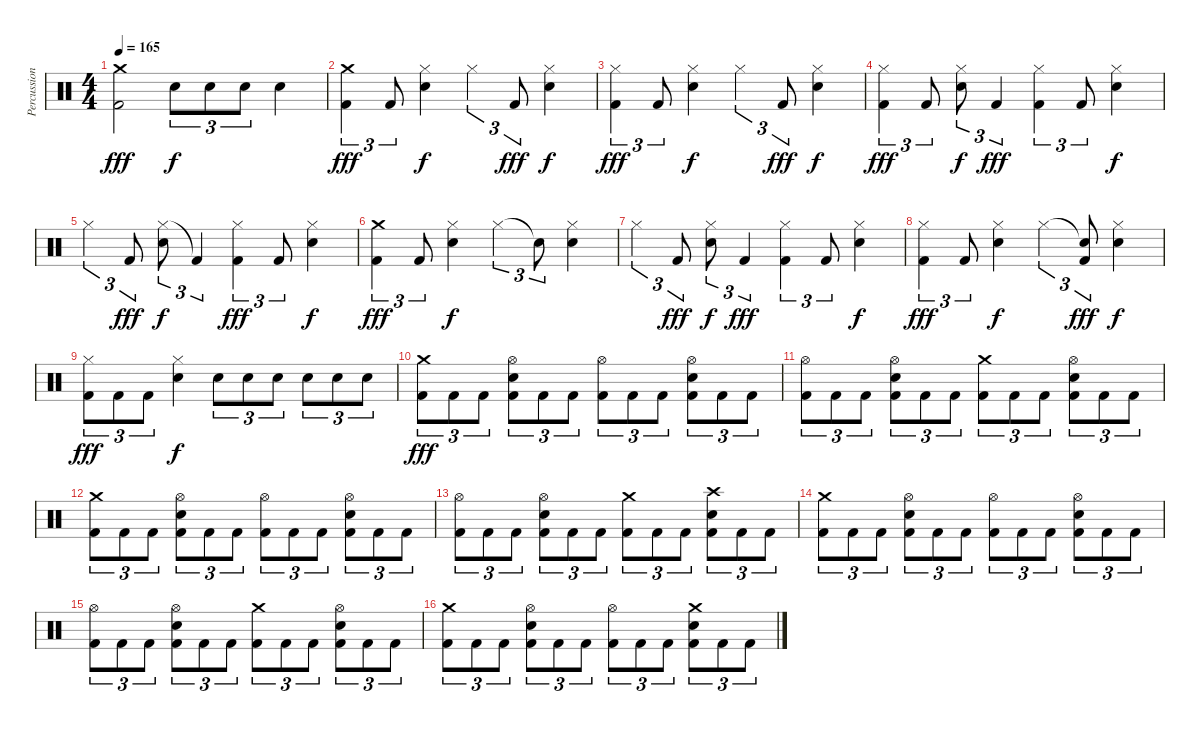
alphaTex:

\track ("Percussion" "Percussion") {instrument percussion}
\staff {score}
\articulation defaults
\ts (4 4)
\tempo 165
\clef neutral
\ks c
("Crash medium (hit)" "Kick (hit) 2").2{dy fff} "Electric Snare (hit)".8{tu (3 2) dy f} "Electric Snare (hit)".8{tu (3 2)} "Electric Snare (hit)".8{tu (3 2)} "Electric Snare (hit)".4 |
("Crash medium (hit)" "Kick (hit) 2").4{tu (3 2) dy fff} "Kick (hit) 2".8{tu (3 2)} ("Hi-Hat (closed)" "Electric Snare (hit)").4{dy f} "Hi-Hat (closed)".4{tu (3 2)} "Kick (hit) 2".8{tu (3 2) dy fff} ("Hi-Hat (closed)" "Electric Snare (hit)").4{dy f} |
("Hi-Hat (closed)" "Kick (hit) 2").4{tu (3 2) dy fff} "Kick (hit) 2".8{tu (3 2)} ("Hi-Hat (closed)" "Electric Snare (hit)").4{dy f} "Hi-Hat (closed)".4{tu (3 2)} "Kick (hit) 2".8{tu (3 2) dy fff} ("Hi-Hat (closed)" "Electric Snare (hit)").4{dy f} |
("Hi-Hat (closed)" "Kick (hit) 2").4{tu (3 2) dy fff} "Kick (hit) 2".8{tu (3 2)} ("Hi-Hat (closed)" "Electric Snare (hit)").8{tu (3 2) dy f} "Kick (hit) 2".4{tu (3 2) dy fff} ("Hi-Hat (closed)" "Kick (hit) 2").4{tu (3 2)} "Kick (hit) 2".8{tu (3 2)} ("Hi-Hat (closed)" "Electric Snare (hit)").4{dy f} |
"Hi-Hat (closed)".4{tu (3 2)} "Kick (hit) 2".8{tu (3 2) dy fff} ("Hi-Hat (closed)" "Electric Snare (hit)").8{tu (3 2) dy f} "Kick (hit) 2"{t}.4{tu (3 2)} ("Hi-Hat (closed)" "Kick (hit) 2").4{tu (3 2) dy fff} "Kick (hit) 2".8{tu (3 2)} ("Hi-Hat (closed)" "Electric Snare (hit)").4{dy f} |
("Crash medium (hit)" "Kick (hit) 2").4{tu (3 2) dy fff} "Kick (hit) 2".8{tu (3 2)} ("Hi-Hat (closed)" "Electric Snare (hit)").4{dy f} "Hi-Hat (closed)".4{tu (3 2)} "Snare (hit)"{t}.8{tu (3 2)} ("Hi-Hat (closed)" "Electric Snare (hit)").4 |
"Hi-Hat (closed)".4{tu (3 2)} "Kick (hit) 2".8{tu (3 2) dy fff} ("Hi-Hat (closed)" "Electric Snare (hit)").8{tu (3 2) dy f} "Kick (hit) 2".4{tu (3 2) dy fff} ("Hi-Hat (closed)" "Kick (hit) 2").4{tu (3 2)} "Kick (hit) 2".8{tu (3 2)} ("Hi-Hat (closed)" "Electric Snare (hit)").4{dy f} |
("Hi-Hat (closed)" "Kick (hit) 2").4{tu (3 2) dy fff} "Kick (hit) 2".8{tu (3 2)} ("Hi-Hat (closed)" "Electric Snare (hit)").4{dy f} "Hi-Hat (closed)".4{tu (3 2)} ("Snare (hit)"{t} "Kick (hit) 2").8{tu (3 2) dy fff} ("Hi-Hat (closed)" "Electric Snare (hit)").4{dy f} |
("Hi-Hat (closed)" "Kick (hit) 2").8{tu (3 2) dy fff} "Kick (hit) 2".8{tu (3 2)} "Kick (hit) 2".8{tu (3 2)} ("Hi-Hat (closed)" "Electric Snare (hit)").4{dy f} "Electric Snare (hit)".8{tu (3 2)} "Electric Snare (hit)".8{tu (3 2)} "Electric Snare (hit)".8{tu (3 2)} "Electric Snare (hit)".8{tu (3 2)} "Electric Snare (hit)".8{tu (3 2)} "Electric Snare (hit)".8{tu (3 2)} |
("Crash medium (hit)" "Kick (hit) 2").8{tu (3 2) dy fff} "Kick (hit) 2".8{tu (3 2)} "Kick (hit) 2".8{tu (3 2)} ("Hi-Hat (open)" "Electric Snare (hit)" "Kick (hit) 2").8{tu (3 2)} "Kick (hit) 2".8{tu (3 2)} "Kick (hit) 2".8{tu (3 2)} ("Hi-Hat (open)" "Kick (hit) 2").8{tu (3 2)} "Kick (hit) 2".8{tu (3 2)} "Kick (hit) 2".8{tu (3 2)} ("Hi-Hat (open)" "Electric Snare (hit)" "Kick (hit) 2").8{tu (3 2)} "Kick (hit) 2".8{tu (3 2)} "Kick (hit) 2".8{tu (3 2)} |
("Hi-Hat (open)" "Kick (hit) 2").8{tu (3 2)} "Kick (hit) 2".8{tu (3 2)} "Kick (hit) 2".8{tu (3 2)} ("Hi-Hat (open)" "Electric Snare (hit)" "Kick (hit) 2").8{tu (3 2)} "Kick (hit) 2".8{tu (3 2)} "Kick (hit) 2".8{tu (3 2)} ("Crash medium (hit)" "Kick (hit) 2").8{tu (3 2)} "Kick (hit) 2".8{tu (3 2)} "Kick (hit) 2".8{tu (3 2)} ("Hi-Hat (open)" "Electric Snare (hit)" "Kick (hit) 2").8{tu (3 2)} "Kick (hit) 2".8{tu (3 2)} "Kick (hit) 2".8{tu (3 2)} |
("Crash medium (hit)" "Kick (hit) 2").8{tu (3 2)} "Kick (hit) 2".8{tu (3 2)} "Kick (hit) 2".8{tu (3 2)} ("Hi-Hat (open)" "Electric Snare (hit)" "Kick (hit) 2").8{tu (3 2)} "Kick (hit) 2".8{tu (3 2)} "Kick (hit) 2".8{tu (3 2)} ("Hi-Hat (open)" "Kick (hit) 2").8{tu (3 2)} "Kick (hit) 2".8{tu (3 2)} "Kick (hit) 2".8{tu (3 2)} ("Hi-Hat (open)" "Electric Snare (hit)" "Kick (hit) 2").8{tu (3 2)} "Kick (hit) 2".8{tu (3 2)} "Kick (hit) 2".8{tu (3 2)} |
("Hi-Hat (open)" "Kick (hit) 2").8{tu (3 2)} "Kick (hit) 2".8{tu (3 2)} "Kick (hit) 2".8{tu (3 2)} ("Hi-Hat (open)" "Electric Snare (hit)" "Kick (hit) 2").8{tu (3 2)} "Kick (hit) 2".8{tu (3 2)} "Kick (hit) 2".8{tu (3 2)} ("Crash medium (hit)" "Kick (hit) 2").8{tu (3 2)} "Kick (hit) 2".8{tu (3 2)} "Kick (hit) 2".8{tu (3 2)} ("Crash high (hit)" "Electric Snare (hit)" "Kick (hit) 2").8{tu (3 2)} "Kick (hit) 2".8{tu (3 2)} "Kick (hit) 2".8{tu (3 2)} |
("Crash medium (hit)" "Kick (hit) 2").8{tu (3 2)} "Kick (hit) 2".8{tu (3 2)} "Kick (hit) 2".8{tu (3 2)} ("Hi-Hat (open)" "Electric Snare (hit)" "Kick (hit) 2").8{tu (3 2)} "Kick (hit) 2".8{tu (3 2)} "Kick (hit) 2".8{tu (3 2)} ("Hi-Hat (open)" "Kick (hit) 2").8{tu (3 2)} "Kick (hit) 2".8{tu (3 2)} "Kick (hit) 2".8{tu (3 2)} ("Hi-Hat (open)" "Electric Snare (hit)" "Kick (hit) 2").8{tu (3 2)} "Kick (hit) 2".8{tu (3 2)} "Kick (hit) 2".8{tu (3 2)} |
("Hi-Hat (open)" "Kick (hit) 2").8{tu (3 2)} "Kick (hit) 2".8{tu (3 2)} "Kick (hit) 2".8{tu (3 2)} ("Hi-Hat (open)" "Electric Snare (hit)" "Kick (hit) 2").8{tu (3 2)} "Kick (hit) 2".8{tu (3 2)} "Kick (hit) 2".8{tu (3 2)} ("Crash medium (hit)" "Kick (hit) 2").8{tu (3 2)} "Kick (hit) 2".8{tu (3 2)} "Kick (hit) 2".8{tu (3 2)} ("Hi-Hat (open)" "Electric Snare (hit)" "Kick (hit) 2").8{tu (3 2)} "Kick (hit) 2".8{tu (3 2)} "Kick (hit) 2".8{tu (3 2)} |
("Crash medium (hit)" "Kick (hit) 2").8{tu (3 2)} "Kick (hit) 2".8{tu (3 2)} "Kick (hit) 2".8{tu (3 2)} ("Hi-Hat (open)" "Electric Snare (hit)" "Kick (hit) 2").8{tu (3 2)} "Kick (hit) 2".8{tu (3 2)} "Kick (hit) 2".8{tu (3 2)} ("Hi-Hat (open)" "Kick (hit) 2").8{tu (3 2)} "Kick (hit) 2".8{tu (3 2)} "Kick (hit) 2".8{tu (3 2)} ("Crash medium (hit)" "Electric Snare (hit)" "Kick (hit) 2").8{tu (3 2)} "Kick (hit) 2".8{tu (3 2)} "Kick (hit) 2".8{tu (3 2)}
